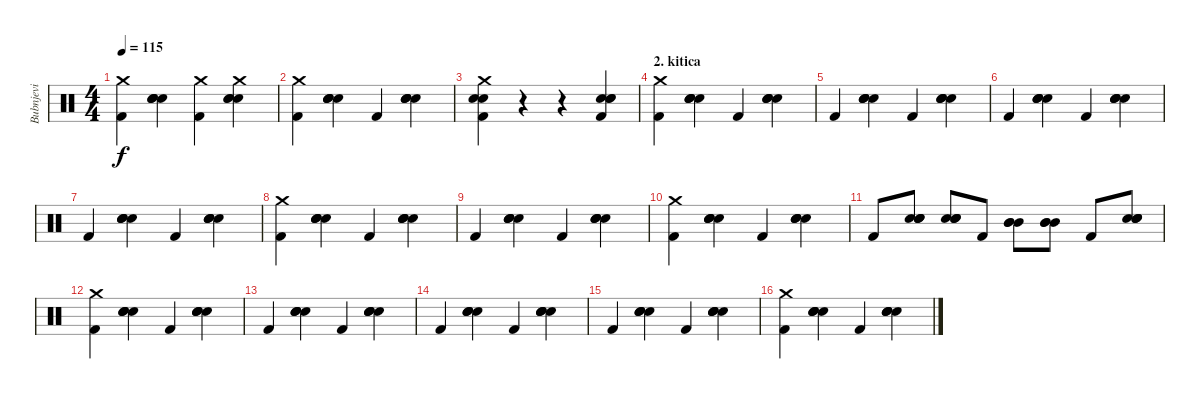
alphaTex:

\track ("Bubnjevi" "Bubnjevi") {instrument percussion}
\staff {score}
\articulation defaults
\ts (4 4)
\tempo 115
\clef neutral
\ks c
("Crash medium (hit)" "Kick (hit) 2").4{dy f} ("Electric Snare (hit)" "Electric Snare (hit)" "Electric Snare (hit)" "Electric Snare (hit)").4 ("Crash medium (hit)" "Kick (hit) 2").4 ("Electric Snare (hit)" "Electric Snare (hit)" "Crash medium (hit)" "Electric Snare (hit)").4 |
("Crash medium (hit)" "Kick (hit) 2").4 ("Electric Snare (hit)" "Electric Snare (hit)" "Electric Snare (hit)" "Electric Snare (hit)").4 "Kick (hit) 2".4 ("Electric Snare (hit)" "Electric Snare (hit)" "Electric Snare (hit)" "Electric Snare (hit)").4 |
("Electric Snare (hit)" "Electric Snare (hit)" "Crash medium (hit)" "Kick (hit) 2").4 r.4 r.4 ("Electric Snare (hit)" "Electric Snare (hit)" "Electric Snare (hit)" "Kick (hit) 2").4 |
\section ("" "2. kitica")
("Crash medium (hit)" "Kick (hit) 2").4 ("Electric Snare (hit)" "Electric Snare (hit)" "Electric Snare (hit)" "Electric Snare (hit)").4 "Kick (hit) 2".4 ("Electric Snare (hit)" "Electric Snare (hit)" "Electric Snare (hit)" "Electric Snare (hit)").4 |
"Kick (hit) 2".4 ("Electric Snare (hit)" "Electric Snare (hit)" "Electric Snare (hit)" "Electric Snare (hit)").4 "Kick (hit) 2".4 ("Electric Snare (hit)" "Electric Snare (hit)" "Electric Snare (hit)" "Electric Snare (hit)").4 |
"Kick (hit) 2".4 ("Electric Snare (hit)" "Electric Snare (hit)" "Electric Snare (hit)" "Electric Snare (hit)").4 "Kick (hit) 2".4 ("Electric Snare (hit)" "Electric Snare (hit)" "Electric Snare (hit)" "Electric Snare (hit)").4 |
"Kick (hit) 2".4 ("Electric Snare (hit)" "Electric Snare (hit)" "Electric Snare (hit)" "Electric Snare (hit)").4 "Kick (hit) 2".4 ("Electric Snare (hit)" "Electric Snare (hit)" "Electric Snare (hit)" "Electric Snare (hit)").4 |
("Crash medium (hit)" "Kick (hit) 2").4 ("Electric Snare (hit)" "Electric Snare (hit)" "Electric Snare (hit)" "Electric Snare (hit)").4 "Kick (hit) 2".4 ("Electric Snare (hit)" "Electric Snare (hit)" "Electric Snare (hit)" "Electric Snare (hit)").4 |
"Kick (hit) 2".4 ("Electric Snare (hit)" "Electric Snare (hit)" "Electric Snare (hit)" "Electric Snare (hit)").4 "Kick (hit) 2".4 ("Electric Snare (hit)" "Electric Snare (hit)" "Electric Snare (hit)" "Electric Snare (hit)").4 |
("Crash medium (hit)" "Kick (hit) 2").4 ("Electric Snare (hit)" "Electric Snare (hit)" "Electric Snare (hit)" "Electric Snare (hit)").4 "Kick (hit) 2".4 ("Electric Snare (hit)" "Electric Snare (hit)" "Electric Snare (hit)" "Electric Snare (hit)").4 |
"Kick (hit) 2".8 ("Electric Snare (hit)" "Electric Snare (hit)" "Electric Snare (hit)" "Electric Snare (hit)").8 ("Electric Snare (hit)" "Electric Snare (hit)" "Electric Snare (hit)" "Electric Snare (hit)").8 "Kick (hit) 2".8 ("Mid Tom (hit)" "Mid Tom (hit)" "Mid Tom (hit)").8 ("Mid Tom (hit)" "Mid Tom (hit)" "Mid Tom (hit)").8 "Kick (hit) 2".8 ("Electric Snare (hit)" "Electric Snare (hit)" "Electric Snare (hit)" "Electric Snare (hit)").8 |
("Crash medium (hit)" "Kick (hit) 2").4 ("Electric Snare (hit)" "Electric Snare (hit)" "Electric Snare (hit)" "Electric Snare (hit)").4 "Kick (hit) 2".4 ("Electric Snare (hit)" "Electric Snare (hit)" "Electric Snare (hit)" "Electric Snare (hit)").4 |
"Kick (hit) 2".4 ("Electric Snare (hit)" "Electric Snare (hit)" "Electric Snare (hit)" "Electric Snare (hit)").4 "Kick (hit) 2".4 ("Electric Snare (hit)" "Electric Snare (hit)" "Electric Snare (hit)" "Electric Snare (hit)").4 |
"Kick (hit) 2".4 ("Electric Snare (hit)" "Electric Snare (hit)" "Electric Snare (hit)" "Electric Snare (hit)").4 "Kick (hit) 2".4 ("Electric Snare (hit)" "Electric Snare (hit)" "Electric Snare (hit)" "Electric Snare (hit)").4 |
"Kick (hit) 2".4 ("Electric Snare (hit)" "Electric Snare (hit)" "Electric Snare (hit)" "Electric Snare (hit)").4 "Kick (hit) 2".4 ("Electric Snare (hit)" "Electric Snare (hit)" "Electric Snare (hit)" "Electric Snare (hit)").4 |
("Crash medium (hit)" "Kick (hit) 2").4 ("Electric Snare (hit)" "Electric Snare (hit)" "Electric Snare (hit)" "Electric Snare (hit)").4 "Kick (hit) 2".4 ("Electric Snare (hit)" "Electric Snare (hit)" "Electric Snare (hit)" "Electric Snare (hit)").4
